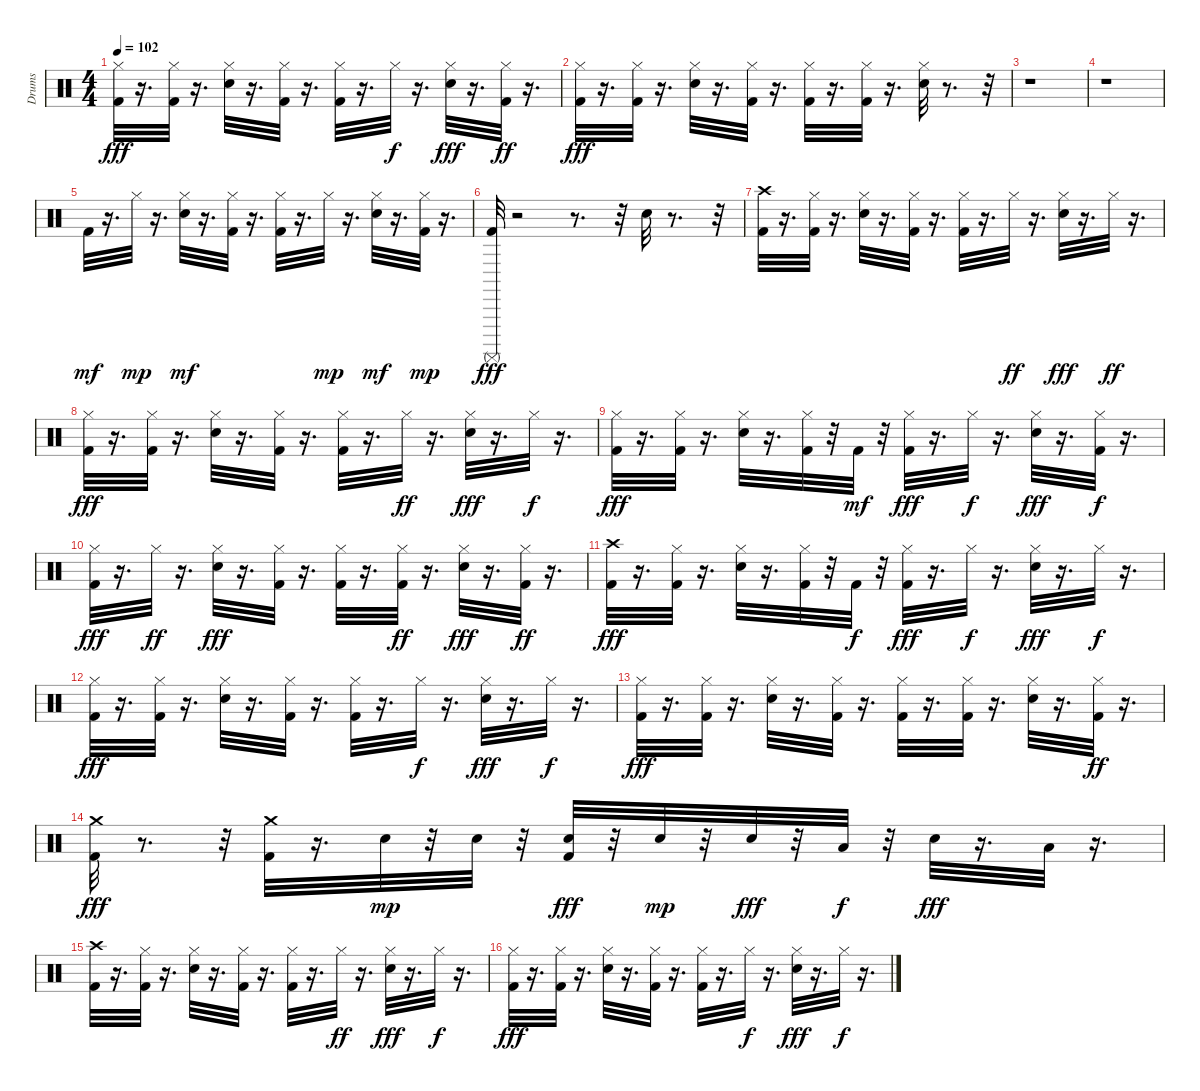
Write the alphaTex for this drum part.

\track ("Drums" "Drums") {instrument percussion}
\staff {score}
\articulation defaults
\ts (4 4)
\tempo 102
\clef neutral
\ks c
("Hi-Hat (closed)" "Kick (hit) 2").32{dy fff} r.16{d} ("Hi-Hat (closed)" "Kick (hit) 2").32 r.16{d} ("Hi-Hat (closed)" "Electric Snare (hit)").32 r.16{d} ("Hi-Hat (closed)" "Kick (hit) 2").32 r.16{d} ("Hi-Hat (closed)" "Kick (hit) 2").32 r.16{d} "Hi-Hat (closed)".32{dy f} r.16{d} ("Hi-Hat (closed)" "Electric Snare (hit)").32{dy fff} r.16{d} ("Kick (hit) 2" "Hi-Hat (closed)").32{dy ff} r.16{d} |
("Hi-Hat (closed)" "Kick (hit) 2").32{dy fff} r.16{d} ("Hi-Hat (closed)" "Kick (hit) 2").32 r.16{d} ("Hi-Hat (closed)" "Electric Snare (hit)").32 r.16{d} ("Hi-Hat (closed)" "Kick (hit) 2").32 r.16{d} ("Hi-Hat (closed)" "Kick (hit) 2").32 r.16{d} ("Kick (hit) 2" "Hi-Hat (closed)").32 r.16{d} ("Hi-Hat (closed)" "Electric Snare (hit)").32 r.8{d} r.32 |
r.1 |
r.1 |
"Kick (hit) 2".32{dy mf} r.16{d} "Hi-Hat (closed)".32{dy mp} r.16{d} ("Hi-Hat (closed)" "Electric Snare (hit)").32{dy mf} r.16{d} ("Hi-Hat (closed)" "Kick (hit) 2").32 r.16{d} ("Hi-Hat (closed)" "Kick (hit) 2").32 r.16{d} "Hi-Hat (closed)".32{dy mp} r.16{d} ("Hi-Hat (closed)" "Electric Snare (hit)").32{dy mf} r.16{d} ("Kick (hit) 2" "Hi-Hat (closed)").32{dy mp} r.16{d} |
("Kick (hit) 2" "Surdo (mute)").32{dy fff} r.2 r.8{d} r.32 "Electric Snare (hit)".32 r.8{d} r.32 |
("Crash high (hit)" "Kick (hit) 2").32 r.16{d} ("Hi-Hat (closed)" "Kick (hit) 2").32 r.16{d} ("Hi-Hat (closed)" "Electric Snare (hit)").32 r.16{d} ("Hi-Hat (closed)" "Kick (hit) 2").32 r.16{d} ("Hi-Hat (closed)" "Kick (hit) 2").32 r.16{d} "Hi-Hat (closed)".32{dy ff} r.16{d} ("Hi-Hat (closed)" "Electric Snare (hit)").32{dy fff} r.16{d} "Hi-Hat (closed)".32{dy ff} r.16{d} |
("Hi-Hat (closed)" "Kick (hit) 2").32{dy fff} r.16{d} ("Hi-Hat (closed)" "Kick (hit) 2").32 r.16{d} ("Hi-Hat (closed)" "Electric Snare (hit)").32 r.16{d} ("Hi-Hat (closed)" "Kick (hit) 2").32 r.16{d} ("Hi-Hat (closed)" "Kick (hit) 2").32 r.16{d} "Hi-Hat (closed)".32{dy ff} r.16{d} ("Hi-Hat (closed)" "Electric Snare (hit)").32{dy fff} r.16{d} "Hi-Hat (closed)".32{dy f} r.16{d} |
("Hi-Hat (closed)" "Kick (hit) 2").32{dy fff} r.16{d} ("Hi-Hat (closed)" "Kick (hit) 2").32 r.16{d} ("Hi-Hat (closed)" "Electric Snare (hit)").32 r.16{d} ("Hi-Hat (closed)" "Kick (hit) 2").32 r.32 "Kick (hit) 2".32{dy mf} r.32 ("Hi-Hat (closed)" "Kick (hit) 2").32{dy fff} r.16{d} "Hi-Hat (closed)".32{dy f} r.16{d} ("Hi-Hat (closed)" "Electric Snare (hit)").32{dy fff} r.16{d} ("Kick (hit) 2" "Hi-Hat (closed)").32{dy f} r.16{d} |
("Hi-Hat (closed)" "Kick (hit) 2").32{dy fff} r.16{d} "Hi-Hat (closed)".32{dy ff} r.16{d} ("Hi-Hat (closed)" "Electric Snare (hit)").32{dy fff} r.16{d} ("Hi-Hat (closed)" "Kick (hit) 2").32 r.16{d} ("Hi-Hat (closed)" "Kick (hit) 2").32 r.16{d} ("Kick (hit) 2" "Hi-Hat (closed)").32{dy ff} r.16{d} ("Hi-Hat (closed)" "Electric Snare (hit)").32{dy fff} r.16{d} ("Kick (hit) 2" "Hi-Hat (closed)").32{dy ff} r.16{d} |
("Crash high (hit)" "Kick (hit) 2").32{dy fff} r.16{d} ("Hi-Hat (closed)" "Kick (hit) 2").32 r.16{d} ("Hi-Hat (closed)" "Electric Snare (hit)").32 r.16{d} ("Hi-Hat (closed)" "Kick (hit) 2").32 r.32 "Kick (hit) 2".32{dy f} r.32 ("Hi-Hat (closed)" "Kick (hit) 2").32{dy fff} r.16{d} "Hi-Hat (closed)".32{dy f} r.16{d} ("Hi-Hat (closed)" "Electric Snare (hit)").32{dy fff} r.16{d} "Hi-Hat (closed)".32{dy f} r.16{d} |
("Hi-Hat (closed)" "Kick (hit) 2").32{dy fff} r.16{d} ("Hi-Hat (closed)" "Kick (hit) 2").32 r.16{d} ("Hi-Hat (closed)" "Electric Snare (hit)").32 r.16{d} ("Hi-Hat (closed)" "Kick (hit) 2").32 r.16{d} ("Hi-Hat (closed)" "Kick (hit) 2").32 r.16{d} "Hi-Hat (closed)".32{dy f} r.16{d} ("Hi-Hat (closed)" "Electric Snare (hit)").32{dy fff} r.16{d} "Hi-Hat (closed)".32{dy f} r.16{d} |
("Hi-Hat (closed)" "Kick (hit) 2").32{dy fff} r.16{d} ("Hi-Hat (closed)" "Kick (hit) 2").32 r.16{d} ("Hi-Hat (closed)" "Electric Snare (hit)").32 r.16{d} ("Hi-Hat (closed)" "Kick (hit) 2").32 r.16{d} ("Hi-Hat (closed)" "Kick (hit) 2").32 r.16{d} ("Kick (hit) 2" "Hi-Hat (closed)").32 r.16{d} ("Hi-Hat (closed)" "Electric Snare (hit)").32 r.16{d} ("Kick (hit) 2" "Hi-Hat (closed)").32{dy ff} r.16{d} |
("Crash medium (hit)" "Kick (hit) 2").32{dy fff} r.8{d} r.32 ("Crash medium (hit)" "Kick (hit) 2").32 r.16{d} "Snare (hit) 2".32{dy mp} r.32 "Snare (hit) 2".32 r.32 ("Electric Snare (hit)" "Kick (hit) 2").32{dy fff} r.32 "Electric Snare (hit)".32{dy mp} r.32 "Electric Snare (hit)".32{dy fff} r.32 "Low Tom (hit)".32{dy f} r.32 "Electric Snare (hit)".32{dy fff} r.16{d} "Low Floor Tom (hit)".32 r.16{d} |
("Crash high (hit)" "Kick (hit) 2").32 r.16{d} ("Hi-Hat (closed)" "Kick (hit) 2").32 r.16{d} ("Hi-Hat (closed)" "Electric Snare (hit)").32 r.16{d} ("Hi-Hat (closed)" "Kick (hit) 2").32 r.16{d} ("Hi-Hat (closed)" "Kick (hit) 2").32 r.16{d} "Hi-Hat (closed)".32{dy ff} r.16{d} ("Hi-Hat (closed)" "Electric Snare (hit)").32{dy fff} r.16{d} "Hi-Hat (closed)".32{dy f} r.16{d} |
("Hi-Hat (closed)" "Kick (hit) 2").32{dy fff} r.16{d} ("Hi-Hat (closed)" "Kick (hit) 2").32 r.16{d} ("Hi-Hat (closed)" "Electric Snare (hit)").32 r.16{d} ("Hi-Hat (closed)" "Kick (hit) 2").32 r.16{d} ("Hi-Hat (closed)" "Kick (hit) 2").32 r.16{d} "Hi-Hat (closed)".32{dy f} r.16{d} ("Hi-Hat (closed)" "Electric Snare (hit)").32{dy fff} r.16{d} "Hi-Hat (closed)".32{dy f} r.16{d}
